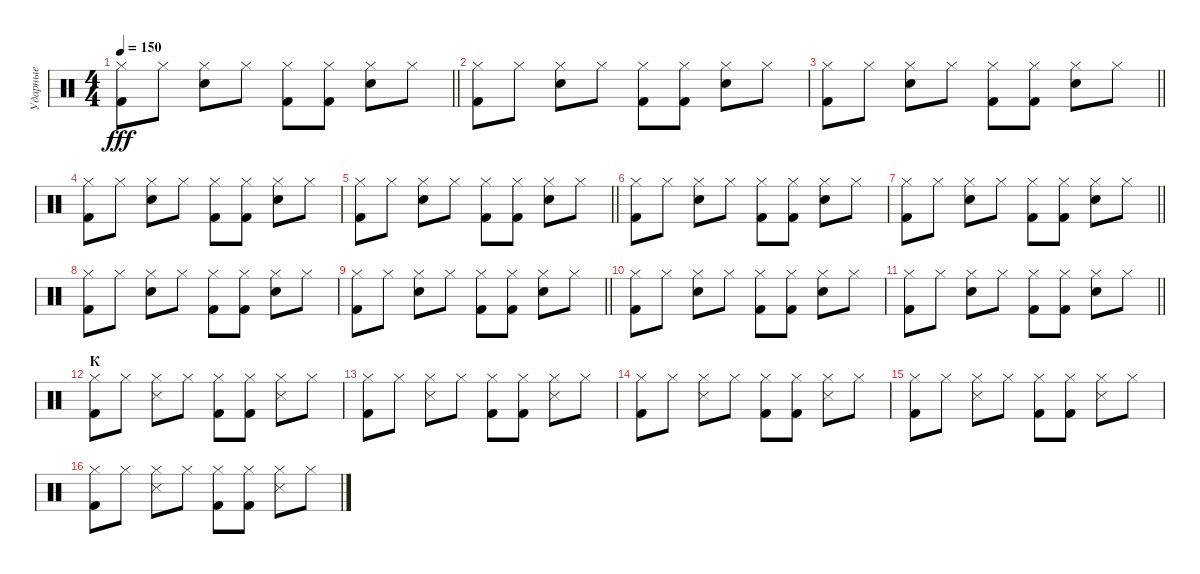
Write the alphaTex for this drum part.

\track ("Ударные" "Ударные") {instrument percussion}
\staff {score}
\articulation defaults
\ts (4 4)
\tempo 150
\clef neutral
\barLineRight lightlight
\ks c
("Kick (hit) 2" "Hi-Hat (closed)").8{dy fff} "Hi-Hat (closed)".8 ("Hi-Hat (closed)" "Electric Snare (hit)").8 "Hi-Hat (closed)".8 ("Kick (hit) 2" "Hi-Hat (closed)").8 ("Kick (hit) 2" "Hi-Hat (closed)").8 ("Hi-Hat (closed)" "Electric Snare (hit)").8 "Hi-Hat (closed)".8 |
("Kick (hit) 2" "Hi-Hat (closed)").8 "Hi-Hat (closed)".8 ("Hi-Hat (closed)" "Electric Snare (hit)").8 "Hi-Hat (closed)".8 ("Kick (hit) 2" "Hi-Hat (closed)").8 ("Kick (hit) 2" "Hi-Hat (closed)").8 ("Hi-Hat (closed)" "Electric Snare (hit)").8 "Hi-Hat (closed)".8 |
\barLineRight lightlight
("Kick (hit) 2" "Hi-Hat (closed)").8 "Hi-Hat (closed)".8 ("Hi-Hat (closed)" "Electric Snare (hit)").8 "Hi-Hat (closed)".8 ("Kick (hit) 2" "Hi-Hat (closed)").8 ("Kick (hit) 2" "Hi-Hat (closed)").8 ("Hi-Hat (closed)" "Electric Snare (hit)").8 "Hi-Hat (closed)".8 |
("Kick (hit) 2" "Hi-Hat (closed)").8 "Hi-Hat (closed)".8 ("Hi-Hat (closed)" "Electric Snare (hit)").8 "Hi-Hat (closed)".8 ("Kick (hit) 2" "Hi-Hat (closed)").8 ("Kick (hit) 2" "Hi-Hat (closed)").8 ("Hi-Hat (closed)" "Electric Snare (hit)").8 "Hi-Hat (closed)".8 |
\barLineRight lightlight
("Kick (hit) 2" "Hi-Hat (closed)").8 "Hi-Hat (closed)".8 ("Hi-Hat (closed)" "Electric Snare (hit)").8 "Hi-Hat (closed)".8 ("Kick (hit) 2" "Hi-Hat (closed)").8 ("Kick (hit) 2" "Hi-Hat (closed)").8 ("Hi-Hat (closed)" "Electric Snare (hit)").8 "Hi-Hat (closed)".8 |
("Kick (hit) 2" "Hi-Hat (closed)").8 "Hi-Hat (closed)".8 ("Hi-Hat (closed)" "Electric Snare (hit)").8 "Hi-Hat (closed)".8 ("Kick (hit) 2" "Hi-Hat (closed)").8 ("Kick (hit) 2" "Hi-Hat (closed)").8 ("Hi-Hat (closed)" "Electric Snare (hit)").8 "Hi-Hat (closed)".8 |
\barLineRight lightlight
("Kick (hit) 2" "Hi-Hat (closed)").8 "Hi-Hat (closed)".8 ("Hi-Hat (closed)" "Electric Snare (hit)").8 "Hi-Hat (closed)".8 ("Kick (hit) 2" "Hi-Hat (closed)").8 ("Kick (hit) 2" "Hi-Hat (closed)").8 ("Hi-Hat (closed)" "Electric Snare (hit)").8 "Hi-Hat (closed)".8 |
("Kick (hit) 2" "Hi-Hat (closed)").8 "Hi-Hat (closed)".8 ("Hi-Hat (closed)" "Electric Snare (hit)").8 "Hi-Hat (closed)".8 ("Kick (hit) 2" "Hi-Hat (closed)").8 ("Kick (hit) 2" "Hi-Hat (closed)").8 ("Hi-Hat (closed)" "Electric Snare (hit)").8 "Hi-Hat (closed)".8 |
\barLineRight lightlight
("Kick (hit) 2" "Hi-Hat (closed)").8 "Hi-Hat (closed)".8 ("Hi-Hat (closed)" "Electric Snare (hit)").8 "Hi-Hat (closed)".8 ("Kick (hit) 2" "Hi-Hat (closed)").8 ("Kick (hit) 2" "Hi-Hat (closed)").8 ("Hi-Hat (closed)" "Electric Snare (hit)").8 "Hi-Hat (closed)".8 |
("Kick (hit) 2" "Hi-Hat (closed)").8 "Hi-Hat (closed)".8 ("Hi-Hat (closed)" "Electric Snare (hit)").8 "Hi-Hat (closed)".8 ("Kick (hit) 2" "Hi-Hat (closed)").8 ("Kick (hit) 2" "Hi-Hat (closed)").8 ("Hi-Hat (closed)" "Electric Snare (hit)").8 "Hi-Hat (closed)".8 |
\barLineRight lightlight
("Kick (hit) 2" "Hi-Hat (closed)").8 "Hi-Hat (closed)".8 ("Hi-Hat (closed)" "Electric Snare (hit)").8 "Hi-Hat (closed)".8 ("Kick (hit) 2" "Hi-Hat (closed)").8 ("Kick (hit) 2" "Hi-Hat (closed)").8 ("Hi-Hat (closed)" "Electric Snare (hit)").8 "Hi-Hat (closed)".8 |
\section ("" "К")
("Kick (hit) 2" "Hi-Hat (closed)").8 "Hi-Hat (closed)".8 ("Hi-Hat (closed)" "Snare (side stick) 3").8 "Hi-Hat (closed)".8 ("Kick (hit) 2" "Hi-Hat (closed)").8 ("Kick (hit) 2" "Hi-Hat (closed)").8 ("Hi-Hat (closed)" "Snare (side stick) 3").8 "Hi-Hat (closed)".8 |
("Kick (hit) 2" "Hi-Hat (closed)").8 "Hi-Hat (closed)".8 ("Hi-Hat (closed)" "Snare (side stick) 3").8 "Hi-Hat (closed)".8 ("Kick (hit) 2" "Hi-Hat (closed)").8 ("Kick (hit) 2" "Hi-Hat (closed)").8 ("Hi-Hat (closed)" "Snare (side stick) 3").8 "Hi-Hat (closed)".8 |
("Kick (hit) 2" "Hi-Hat (closed)").8 "Hi-Hat (closed)".8 ("Hi-Hat (closed)" "Snare (side stick) 3").8 "Hi-Hat (closed)".8 ("Kick (hit) 2" "Hi-Hat (closed)").8 ("Kick (hit) 2" "Hi-Hat (closed)").8 ("Hi-Hat (closed)" "Snare (side stick) 3").8 "Hi-Hat (closed)".8 |
("Kick (hit) 2" "Hi-Hat (closed)").8 "Hi-Hat (closed)".8 ("Hi-Hat (closed)" "Snare (side stick) 3").8 "Hi-Hat (closed)".8 ("Kick (hit) 2" "Hi-Hat (closed)").8 ("Kick (hit) 2" "Hi-Hat (closed)").8 ("Hi-Hat (closed)" "Snare (side stick) 3").8 "Hi-Hat (closed)".8 |
("Kick (hit) 2" "Hi-Hat (closed)").8 "Hi-Hat (closed)".8 ("Hi-Hat (closed)" "Snare (side stick) 3").8 "Hi-Hat (closed)".8 ("Kick (hit) 2" "Hi-Hat (closed)").8 ("Kick (hit) 2" "Hi-Hat (closed)").8 ("Hi-Hat (closed)" "Snare (side stick) 3").8 "Hi-Hat (closed)".8
